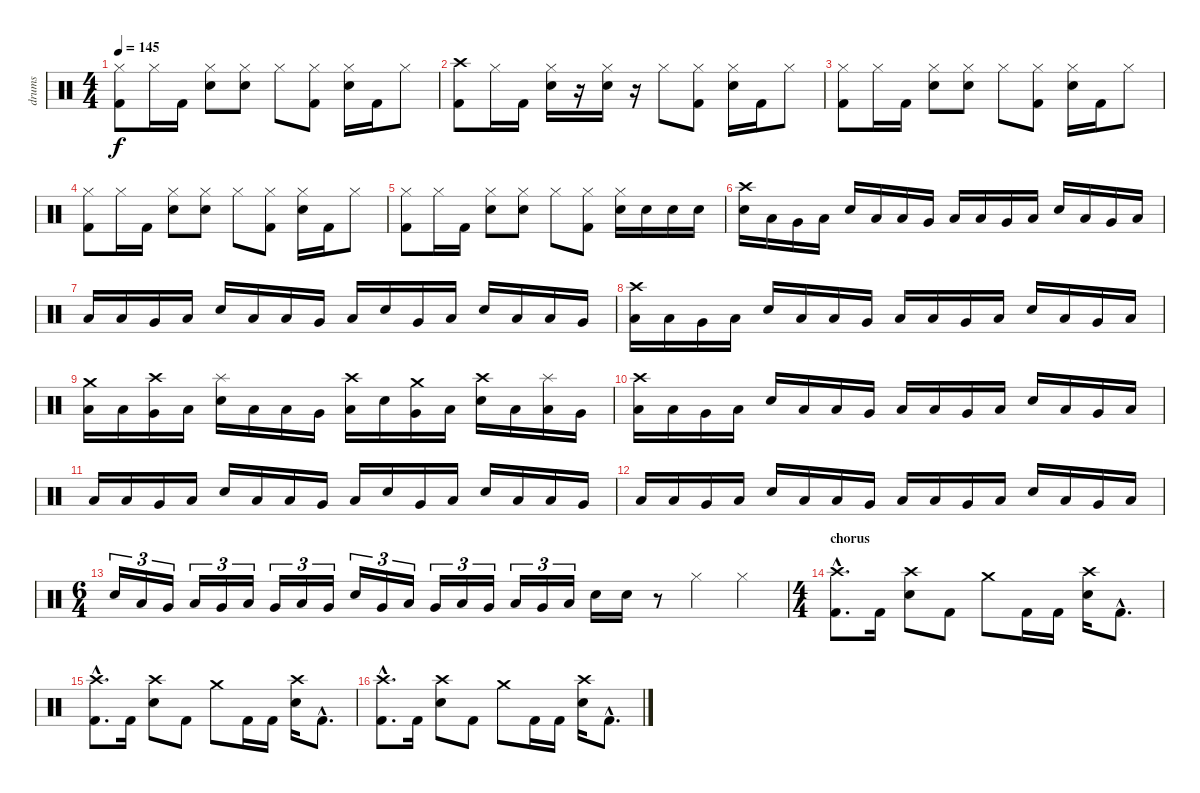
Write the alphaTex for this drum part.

\track ("drums" "drums") {instrument percussion}
\staff {score}
\articulation defaults
\ts (4 4)
\tempo 145
\clef neutral
\ks c
("Hi-Hat (closed)" "Kick (hit) 2").8{dy f} "Hi-Hat (closed)".16 "Kick (hit) 2".16 ("Hi-Hat (closed)" "Electric Snare (hit)").8 ("Hi-Hat (closed)" "Electric Snare (hit)").8 "Hi-Hat (closed)".8 ("Hi-Hat (closed)" "Kick (hit) 2").8 ("Hi-Hat (closed)" "Electric Snare (hit)").16 "Kick (hit) 2".16 "Hi-Hat (closed)".8 |
("Crash high (hit)" "Kick (hit) 2").8 "Hi-Hat (closed)".16 "Kick (hit) 2".16 ("Hi-Hat (closed)" "Electric Snare (hit)").16 r.16 ("Hi-Hat (closed)" "Electric Snare (hit)").16 r.16 "Hi-Hat (closed)".8 ("Hi-Hat (closed)" "Kick (hit) 2").8 ("Hi-Hat (closed)" "Electric Snare (hit)").16 "Kick (hit) 2".16 "Hi-Hat (closed)".8 |
("Hi-Hat (closed)" "Kick (hit) 2").8 "Hi-Hat (closed)".16 "Kick (hit) 2".16 ("Hi-Hat (closed)" "Electric Snare (hit)").8 ("Hi-Hat (closed)" "Electric Snare (hit)").8 "Hi-Hat (closed)".8 ("Hi-Hat (closed)" "Kick (hit) 2").8 ("Hi-Hat (closed)" "Electric Snare (hit)").16 "Kick (hit) 2".16 "Hi-Hat (closed)".8 |
("Hi-Hat (closed)" "Kick (hit) 2").8 "Hi-Hat (closed)".16 "Kick (hit) 2".16 ("Hi-Hat (closed)" "Electric Snare (hit)").8 ("Hi-Hat (closed)" "Electric Snare (hit)").8 "Hi-Hat (closed)".8 ("Hi-Hat (closed)" "Kick (hit) 2").8 ("Hi-Hat (closed)" "Electric Snare (hit)").16 "Kick (hit) 2".16 "Hi-Hat (closed)".8 |
("Hi-Hat (closed)" "Kick (hit) 2").8 "Hi-Hat (closed)".16 "Kick (hit) 2".16 ("Hi-Hat (closed)" "Electric Snare (hit)").8 ("Hi-Hat (closed)" "Electric Snare (hit)").8 "Hi-Hat (closed)".8 ("Hi-Hat (closed)" "Kick (hit) 2").8 ("Hi-Hat (closed)" "Electric Snare (hit)").16 "Electric Snare (hit)".16 "Electric Snare (hit)".16 "Electric Snare (hit)".16 |
("Crash high (hit)" "Electric Snare (hit)").16 "Low Tom (hit)".16 "Very Low Tom (hit)".16 "Low Floor Tom (hit)".16 "Electric Snare (hit)".16 "Low Floor Tom (hit)".16 "Low Tom (hit)".16 "Very Low Tom (hit)".16 "Low Tom (hit)".16 "Low Floor Tom (hit)".16 "Very Low Tom (hit)".16 "Low Floor Tom (hit)".16 "Electric Snare (hit)".16 "Low Floor Tom (hit)".16 "Very Low Tom (hit)".16 "Low Tom (hit)".16 |
"Low Floor Tom (hit)".16 "Low Tom (hit)".16 "Very Low Tom (hit)".16 "Low Floor Tom (hit)".16 "Electric Snare (hit)".16 "Low Floor Tom (hit)".16 "Low Tom (hit)".16 "Very Low Tom (hit)".16 "Low Tom (hit)".16 "Electric Snare (hit)".16 "Very Low Tom (hit)".16 "Low Floor Tom (hit)".16 "Electric Snare (hit)".16 "Low Floor Tom (hit)".16 "Low Tom (hit)".16 "Very Low Tom (hit)".16 |
("Crash high (hit)" "Low Floor Tom (hit)").16 "Low Tom (hit)".16 "Very Low Tom (hit)".16 "Low Floor Tom (hit)".16 "Electric Snare (hit)".16 "Low Floor Tom (hit)".16 "Low Tom (hit)".16 "Very Low Tom (hit)".16 "Low Tom (hit)".16 "Low Floor Tom (hit)".16 "Very Low Tom (hit)".16 "Low Floor Tom (hit)".16 "Electric Snare (hit)".16 "Low Floor Tom (hit)".16 "Very Low Tom (hit)".16 "Low Tom (hit)".16 |
("Crash medium (hit)" "Low Floor Tom (hit)").16 "Low Tom (hit)".16 ("Crash high (hit)" "Very Low Tom (hit)").16 "Low Floor Tom (hit)".16 ("Splash (hit)" "Electric Snare (hit)").16 "Low Floor Tom (hit)".16 "Low Tom (hit)".16 "Very Low Tom (hit)".16 ("Crash high (hit)" "Low Tom (hit)").16 "Electric Snare (hit)".16 ("Crash medium (hit)" "Very Low Tom (hit)").16 "Low Floor Tom (hit)".16 ("Crash high (hit)" "Electric Snare (hit)").16 "Low Floor Tom (hit)".16 ("Splash (hit)" "Low Tom (hit)").16 "Very Low Tom (hit)".16 |
("Crash high (hit)" "Low Floor Tom (hit)").16 "Low Tom (hit)".16 "Very Low Tom (hit)".16 "Low Floor Tom (hit)".16 "Electric Snare (hit)".16 "Low Floor Tom (hit)".16 "Low Tom (hit)".16 "Very Low Tom (hit)".16 "Low Tom (hit)".16 "Low Floor Tom (hit)".16 "Very Low Tom (hit)".16 "Low Floor Tom (hit)".16 "Electric Snare (hit)".16 "Low Floor Tom (hit)".16 "Very Low Tom (hit)".16 "Low Tom (hit)".16 |
"Low Floor Tom (hit)".16 "Low Tom (hit)".16 "Very Low Tom (hit)".16 "Low Floor Tom (hit)".16 "Electric Snare (hit)".16 "Low Floor Tom (hit)".16 "Low Tom (hit)".16 "Very Low Tom (hit)".16 "Low Tom (hit)".16 "Electric Snare (hit)".16 "Very Low Tom (hit)".16 "Low Floor Tom (hit)".16 "Electric Snare (hit)".16 "Low Floor Tom (hit)".16 "Low Tom (hit)".16 "Very Low Tom (hit)".16 |
"Low Floor Tom (hit)".16 "Low Tom (hit)".16 "Very Low Tom (hit)".16 "Low Floor Tom (hit)".16 "Electric Snare (hit)".16 "Low Floor Tom (hit)".16 "Low Tom (hit)".16 "Very Low Tom (hit)".16 "Low Tom (hit)".16 "Low Floor Tom (hit)".16 "Very Low Tom (hit)".16 "Low Floor Tom (hit)".16 "Electric Snare (hit)".16 "Low Floor Tom (hit)".16 "Very Low Tom (hit)".16 "Low Tom (hit)".16 |
\ts (6 4)
"Electric Snare (hit)".16{tu (3 2)} "Low Tom (hit)".16{tu (3 2)} "Very Low Tom (hit)".16{tu (3 2)} "Low Tom (hit)".16{tu (3 2)} "Very Low Tom (hit)".16{tu (3 2)} "Low Tom (hit)".16{tu (3 2)} "Very Low Tom (hit)".16{tu (3 2)} "Low Tom (hit)".16{tu (3 2)} "Very Low Tom (hit)".16{tu (3 2)} "Electric Snare (hit)".16{tu (3 2)} "Very Low Tom (hit)".16{tu (3 2)} "Low Tom (hit)".16{tu (3 2)} "Very Low Tom (hit)".16{tu (3 2)} "Low Tom (hit)".16{tu (3 2)} "Very Low Tom (hit)".16{tu (3 2)} "Low Tom (hit)".16{tu (3 2)} "Very Low Tom (hit)".16{tu (3 2)} "Low Tom (hit)".16{tu (3 2)} "Electric Snare (hit)".16 "Electric Snare (hit)".16 r.8 "Hi-Hat (closed)".4 "Hi-Hat (closed)".4 |
\ts (4 4)
\section ("" "chorus")
("Crash high (hit)"{hac} "Kick (hit) 2"{hac}).8{d} "Kick (hit) 2".16 ("Crash high (hit)" "Electric Snare (hit)").8 "Kick (hit) 2".8 "Crash medium (hit)".8 "Kick (hit) 2".16 "Kick (hit) 2".16 ("Crash high (hit)" "Electric Snare (hit)").16 "Kick (hit) 2"{hac}.8{d} |
("Crash high (hit)"{hac} "Kick (hit) 2"{hac}).8{d} "Kick (hit) 2".16 ("Crash high (hit)" "Electric Snare (hit)").8 "Kick (hit) 2".8 "Crash medium (hit)".8 "Kick (hit) 2".16 "Kick (hit) 2".16 ("Crash high (hit)" "Electric Snare (hit)").16 "Kick (hit) 2"{hac}.8{d} |
("Crash high (hit)"{hac} "Kick (hit) 2"{hac}).8{d} "Kick (hit) 2".16 ("Crash high (hit)" "Electric Snare (hit)").8 "Kick (hit) 2".8 "Crash medium (hit)".8 "Kick (hit) 2".16 "Kick (hit) 2".16 ("Crash high (hit)" "Electric Snare (hit)").16 "Kick (hit) 2"{hac}.8{d}
